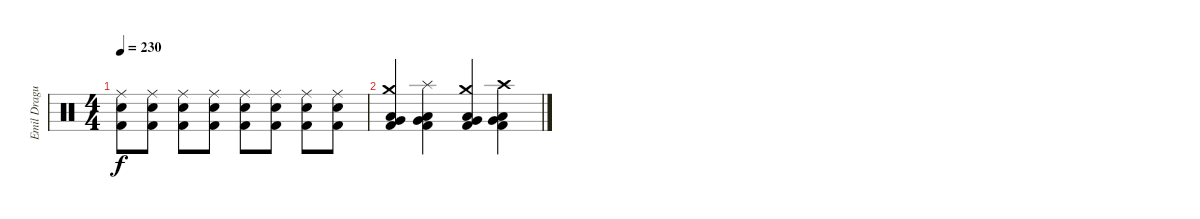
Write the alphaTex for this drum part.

\track ("Emil Dragutinovic" "Emil Dragu") {instrument percussion}
\staff {score}
\articulation defaults
\ts (4 4)
\tempo 230
\clef neutral
\ks c
("Ride (middle)" "Electric Snare (hit)" "Kick (hit) 2").8{dy f} ("Ride (middle)" "Electric Snare (hit)" "Kick (hit) 2").8 ("Ride (middle)" "Electric Snare (hit)" "Kick (hit) 2").8 ("Ride (middle)" "Electric Snare (hit)" "Kick (hit) 2").8 ("Ride (middle)" "Electric Snare (hit)" "Kick (hit) 2").8 ("Ride (middle)" "Electric Snare (hit)" "Kick (hit) 2").8 ("Ride (middle)" "Electric Snare (hit)" "Kick (hit) 2").8 ("Ride (middle)" "Electric Snare (hit)" "Kick (hit) 2").8 |
("Crash medium (hit)" "Very Low Tom (hit)" "Low Tom (hit)" "Kick (hit) 2").4 ("Splash (hit)" "Very Low Tom (hit)" "Low Tom (hit)" "Kick (hit) 2").4 ("Crash medium (hit)" "Low Floor Tom (hit)" "Very Low Tom (hit)" "Kick (hit) 2").4 ("Crash high (hit)" "Low Floor Tom (hit)" "Very Low Tom (hit)" "Kick (hit) 2").4
